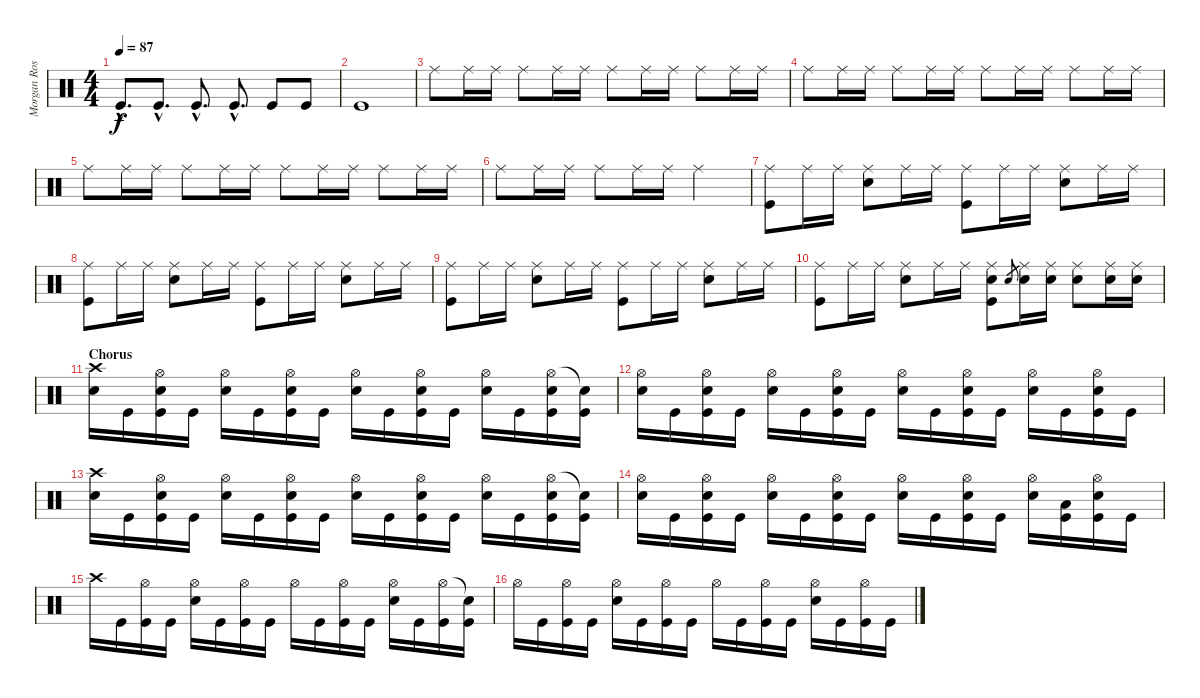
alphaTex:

\track ("Morgan Rose" "Morgan Ros") {instrument percussion}
\staff {score}
\articulation defaults
\ts (4 4)
\tempo 87
\clef neutral
\ks c "Kick (hit)"{hac}.8{d dy f} "Kick (hit)"{hac}.8{d} "Kick (hit)"{hac}.8{d} "Kick (hit)"{hac}.8{d} "Kick (hit)".8 "Kick (hit)".8
|
"Kick (hit)".1 |
"Ride (middle)".8 "Ride (middle)".16 "Ride (middle)".16 "Ride (middle)".8 "Ride (middle)".16 "Ride (middle)".16 "Ride (middle)".8 "Ride (middle)".16 "Ride (middle)".16 "Ride (middle)".8 "Ride (middle)".16 "Ride (middle)".16 |
"Ride (middle)".8 "Ride (middle)".16 "Ride (middle)".16 "Ride (middle)".8 "Ride (middle)".16 "Ride (middle)".16 "Ride (middle)".8 "Ride (middle)".16 "Ride (middle)".16 "Ride (middle)".8 "Ride (middle)".16 "Ride (middle)".16 |
"Ride (middle)".8 "Ride (middle)".16 "Ride (middle)".16 "Ride (middle)".8 "Ride (middle)".16 "Ride (middle)".16 "Ride (middle)".8 "Ride (middle)".16 "Ride (middle)".16 "Ride (middle)".8 "Ride (middle)".16 "Ride (middle)".16 |
"Ride (middle)".8 "Ride (middle)".16 "Ride (middle)".16 "Ride (middle)".8 "Ride (middle)".16 "Ride (middle)".16 "Ride (middle)".2 |
("Ride (middle)" "Kick (hit)").8 "Ride (middle)".16 "Ride (middle)".16 ("Ride (middle)" "Snare (hit) 2").8 "Ride (middle)".16 "Ride (middle)".16 ("Ride (middle)" "Kick (hit)").8 "Ride (middle)".16 "Ride (middle)".16 ("Ride (middle)" "Snare (hit) 2").8 "Ride (middle)".16 "Ride (middle)".16 |
("Ride (middle)" "Kick (hit)").8 "Ride (middle)".16 "Ride (middle)".16 ("Ride (middle)" "Snare (hit) 2").8 "Ride (middle)".16 "Ride (middle)".16 ("Ride (middle)" "Kick (hit)").8 "Ride (middle)".16 "Ride (middle)".16 ("Ride (middle)" "Snare (hit) 2").8 "Ride (middle)".16 "Ride (middle)".16 |
("Ride (middle)" "Kick (hit)").8 "Ride (middle)".16 "Ride (middle)".16 ("Ride (middle)" "Snare (hit) 2").8 "Ride (middle)".16 "Ride (middle)".16 ("Ride (middle)" "Kick (hit)").8 "Ride (middle)".16 "Ride (middle)".16 ("Ride (middle)" "Snare (hit) 2").8 "Ride (middle)".16 "Ride (middle)".16 |
("Ride (middle)" "Kick (hit)").8 "Ride (middle)".16 "Ride (middle)".16 ("Ride (middle)" "Snare (hit) 2").8 "Ride (middle)".16 "Ride (middle)".16 ("Ride (middle)" "Snare (hit) 2" "Kick (hit)").8 "Snare (hit) 2".8{gr} ("Ride (middle)" "Snare (hit) 2").16 ("Ride (middle)" "Snare (hit) 2").16 ("Ride (middle)" "Snare (hit) 2").8 ("Ride (middle)" "Snare (hit) 2").16 ("Ride (middle)" "Snare (hit) 2").16 |
\section ("" "Chorus")
("Crash high (hit)" "Snare (hit) 2").16 "Kick (hit)".16 ("Hi-Hat (open)" "Snare (hit) 2" "Kick (hit)").16 "Kick (hit)".16 ("Hi-Hat (open)" "Snare (hit) 2").16 "Kick (hit)".16 ("Hi-Hat (open)" "Snare (hit) 2" "Kick (hit)").16 "Kick (hit)".16 ("Hi-Hat (open)" "Snare (hit) 2").16 "Kick (hit)".16 ("Hi-Hat (open)" "Snare (hit) 2" "Kick (hit)").16 "Kick (hit)".16 ("Hi-Hat (open)" "Snare (hit) 2").16 "Kick (hit)".16 ("Hi-Hat (open)" "Snare (hit) 2" "Kick (hit)").16 ("Snare (hit)"{t} "Kick (hit)").16 |
("Hi-Hat (open)" "Snare (hit) 2").16 "Kick (hit)".16 ("Hi-Hat (open)" "Snare (hit) 2" "Kick (hit)").16 "Kick (hit)".16 ("Hi-Hat (open)" "Snare (hit) 2").16 "Kick (hit)".16 ("Hi-Hat (open)" "Snare (hit) 2" "Kick (hit)").16 "Kick (hit)".16 ("Hi-Hat (open)" "Snare (hit) 2").16 "Kick (hit)".16 ("Hi-Hat (open)" "Snare (hit) 2" "Kick (hit)").16 "Kick (hit)".16 ("Hi-Hat (open)" "Snare (hit) 2").16 "Kick (hit)".16 ("Hi-Hat (open)" "Snare (hit) 2" "Kick (hit)").16 "Kick (hit)".16 |
("Crash high (hit)" "Snare (hit) 2").16 "Kick (hit)".16 ("Hi-Hat (open)" "Snare (hit) 2" "Kick (hit)").16 "Kick (hit)".16 ("Hi-Hat (open)" "Snare (hit) 2").16 "Kick (hit)".16 ("Hi-Hat (open)" "Snare (hit) 2" "Kick (hit)").16 "Kick (hit)".16 ("Hi-Hat (open)" "Snare (hit) 2").16 "Kick (hit)".16 ("Hi-Hat (open)" "Snare (hit) 2" "Kick (hit)").16 "Kick (hit)".16 ("Hi-Hat (open)" "Snare (hit) 2").16 "Kick (hit)".16 ("Hi-Hat (open)" "Snare (hit) 2" "Kick (hit)").16 ("Snare (hit)"{t} "Kick (hit)").16 |
("Hi-Hat (open)" "Snare (hit) 2").16 "Kick (hit)".16 ("Hi-Hat (open)" "Snare (hit) 2" "Kick (hit)").16 "Kick (hit)".16 ("Hi-Hat (open)" "Snare (hit) 2").16 "Kick (hit)".16 ("Hi-Hat (open)" "Snare (hit) 2" "Kick (hit)").16 "Kick (hit)".16 ("Hi-Hat (open)" "Snare (hit) 2").16 "Kick (hit)".16 ("Hi-Hat (open)" "Snare (hit) 2" "Kick (hit)").16 "Kick (hit)".16 ("Hi-Hat (open)" "Snare (hit) 2").16 ("Low Tom (hit)" "Kick (hit)").16 ("Hi-Hat (open)" "Snare (hit) 2" "Kick (hit)").16 "Kick (hit)".16 |
"Crash high (hit)".16 "Kick (hit)".16 ("Hi-Hat (open)" "Kick (hit)").16 "Kick (hit)".16 ("Hi-Hat (open)" "Snare (hit) 2").16 "Kick (hit)".16 ("Hi-Hat (open)" "Kick (hit)").16 "Kick (hit)".16 "Hi-Hat (open)".16 "Kick (hit)".16 ("Hi-Hat (open)" "Kick (hit)").16 "Kick (hit)".16 ("Hi-Hat (open)" "Snare (hit) 2").16 "Kick (hit)".16 ("Hi-Hat (open)" "Kick (hit)").16 ("Snare (hit)"{t} "Kick (hit)").16 |
"Hi-Hat (open)".16 "Kick (hit)".16 ("Hi-Hat (open)" "Kick (hit)").16 "Kick (hit)".16 ("Hi-Hat (open)" "Snare (hit) 2").16 "Kick (hit)".16 ("Hi-Hat (open)" "Kick (hit)").16 "Kick (hit)".16 "Hi-Hat (open)".16 "Kick (hit)".16 ("Hi-Hat (open)" "Kick (hit)").16 "Kick (hit)".16 ("Hi-Hat (open)" "Snare (hit) 2").16 "Kick (hit)".16 ("Hi-Hat (open)" "Kick (hit)").16 "Kick (hit)".16
